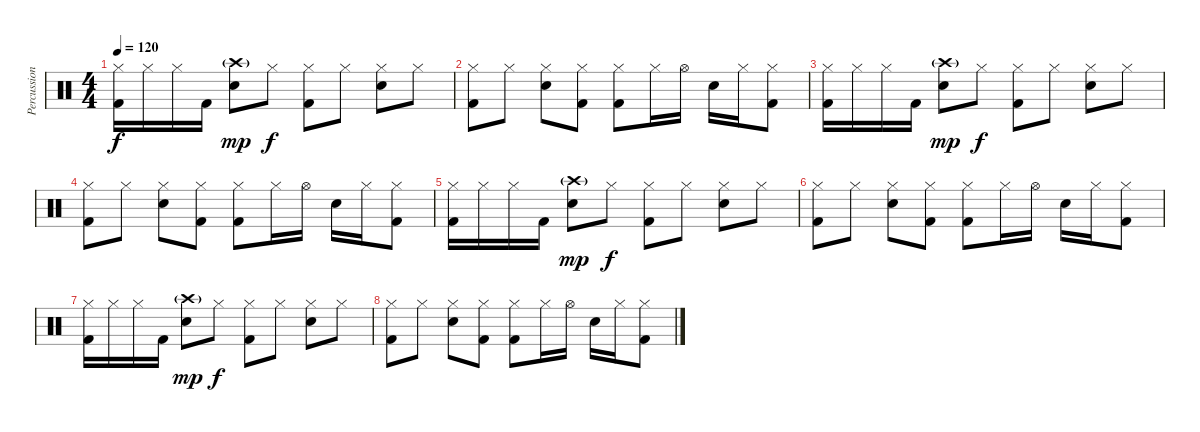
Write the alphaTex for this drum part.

\track ("Percussions" "Percussion") {instrument percussion}
\staff {score}
\articulation defaults
\ts (4 4)
\tempo 120
\clef neutral
\ks c
("Hi-Hat (closed)" "Kick (hit) 2").16{dy f} "Hi-Hat (closed)".16 "Hi-Hat (closed)".16 "Kick (hit) 2".16 ("Crash high (hit)"{g} "Snare (hit) 2").8{dy mp} "Hi-Hat (closed)".8{dy f} ("Hi-Hat (closed)" "Kick (hit) 2").8 "Hi-Hat (closed)".8 ("Hi-Hat (closed)" "Snare (hit) 2").8 "Hi-Hat (closed)".8 |
("Hi-Hat (closed)" "Kick (hit) 2").8 "Hi-Hat (closed)".8 ("Hi-Hat (closed)" "Snare (hit) 2").8 ("Hi-Hat (closed)" "Kick (hit) 2").8 ("Hi-Hat (closed)" "Kick (hit) 2").8 "Hi-Hat (closed)".16 "Hi-Hat (open)".16 "Snare (hit) 2".16 "Hi-Hat (closed)".16 ("Hi-Hat (closed)" "Kick (hit) 2").8 |
("Hi-Hat (closed)" "Kick (hit) 2").16 "Hi-Hat (closed)".16 "Hi-Hat (closed)".16 "Kick (hit) 2".16 ("Crash high (hit)"{g} "Snare (hit) 2").8{dy mp} "Hi-Hat (closed)".8{dy f} ("Hi-Hat (closed)" "Kick (hit) 2").8 "Hi-Hat (closed)".8 ("Hi-Hat (closed)" "Snare (hit) 2").8 "Hi-Hat (closed)".8 |
("Hi-Hat (closed)" "Kick (hit) 2").8 "Hi-Hat (closed)".8 ("Hi-Hat (closed)" "Snare (hit) 2").8 ("Hi-Hat (closed)" "Kick (hit) 2").8 ("Hi-Hat (closed)" "Kick (hit) 2").8 "Hi-Hat (closed)".16 "Hi-Hat (open)".16 "Snare (hit) 2".16 "Hi-Hat (closed)".16 ("Hi-Hat (closed)" "Kick (hit) 2").8 |
("Hi-Hat (closed)" "Kick (hit) 2").16 "Hi-Hat (closed)".16 "Hi-Hat (closed)".16 "Kick (hit) 2".16 ("Crash high (hit)"{g} "Snare (hit) 2").8{dy mp} "Hi-Hat (closed)".8{dy f} ("Hi-Hat (closed)" "Kick (hit) 2").8 "Hi-Hat (closed)".8 ("Hi-Hat (closed)" "Snare (hit) 2").8 "Hi-Hat (closed)".8 |
("Hi-Hat (closed)" "Kick (hit) 2").8 "Hi-Hat (closed)".8 ("Hi-Hat (closed)" "Snare (hit) 2").8 ("Hi-Hat (closed)" "Kick (hit) 2").8 ("Hi-Hat (closed)" "Kick (hit) 2").8 "Hi-Hat (closed)".16 "Hi-Hat (open)".16 "Snare (hit) 2".16 "Hi-Hat (closed)".16 ("Hi-Hat (closed)" "Kick (hit) 2").8 |
("Hi-Hat (closed)" "Kick (hit) 2").16 "Hi-Hat (closed)".16 "Hi-Hat (closed)".16 "Kick (hit) 2".16 ("Crash high (hit)"{g} "Snare (hit) 2").8{dy mp} "Hi-Hat (closed)".8{dy f} ("Hi-Hat (closed)" "Kick (hit) 2").8 "Hi-Hat (closed)".8 ("Hi-Hat (closed)" "Snare (hit) 2").8 "Hi-Hat (closed)".8 |
("Hi-Hat (closed)" "Kick (hit) 2").8 "Hi-Hat (closed)".8 ("Hi-Hat (closed)" "Snare (hit) 2").8 ("Hi-Hat (closed)" "Kick (hit) 2").8 ("Hi-Hat (closed)" "Kick (hit) 2").8 "Hi-Hat (closed)".16 "Hi-Hat (open)".16 "Snare (hit) 2".16 "Hi-Hat (closed)".16 ("Hi-Hat (closed)" "Kick (hit) 2").8
